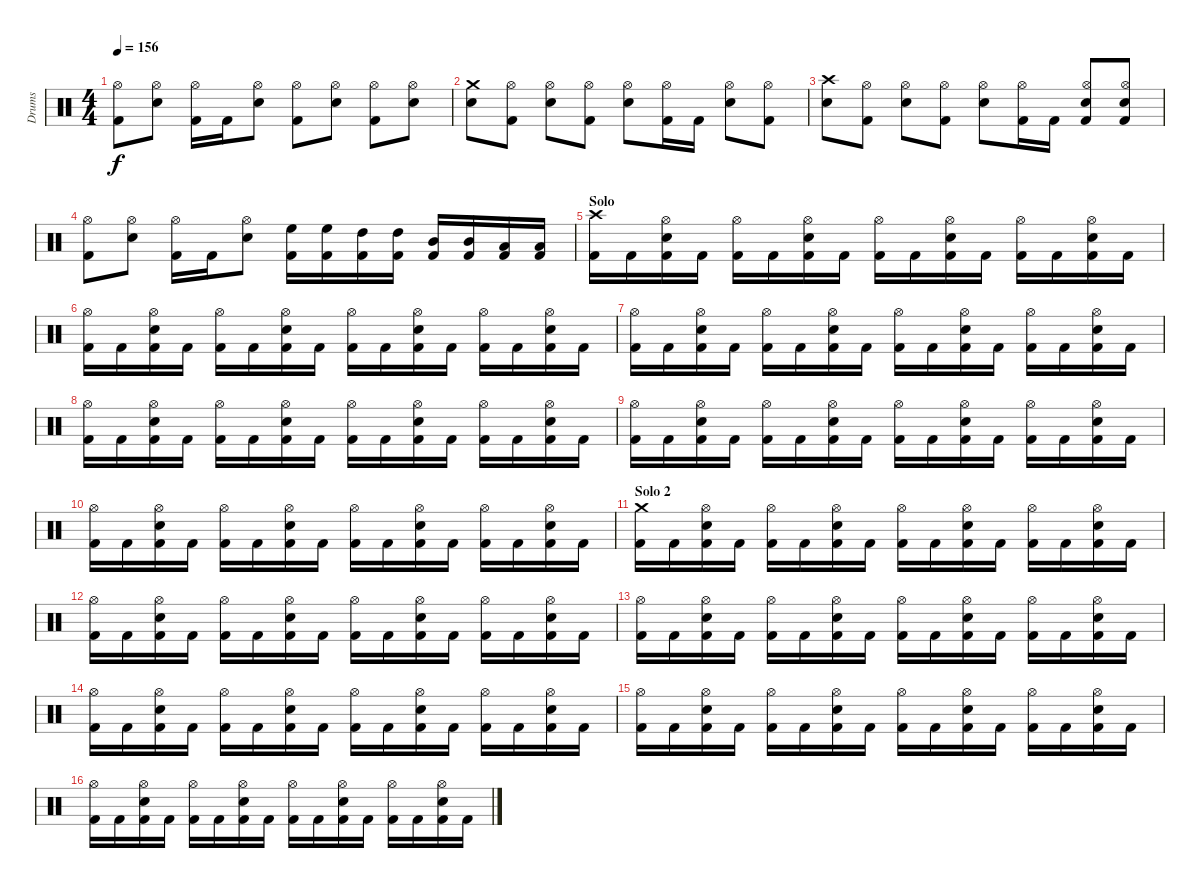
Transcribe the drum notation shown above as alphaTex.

\track ("Drums" "Drums") {instrument percussion}
\staff {score}
\articulation defaults
\ts (4 4)
\tempo 156
\clef neutral
\ks c
("Kick (hit) 2" "Hi-Hat (open)").8{dy f} ("Snare (hit) 2" "Hi-Hat (open)").8 ("Kick (hit) 2" "Hi-Hat (open)").16 "Kick (hit) 2".16 ("Snare (hit) 2" "Hi-Hat (open)").8 ("Kick (hit) 2" "Hi-Hat (open)").8 ("Snare (hit) 2" "Hi-Hat (open)").8 ("Kick (hit) 2" "Hi-Hat (open)").8 ("Snare (hit) 2" "Hi-Hat (open)").8 |
("Snare (hit) 2" "Crash medium (hit)").8 ("Kick (hit) 2" "Hi-Hat (open)").8 ("Snare (hit) 2" "Hi-Hat (open)").8 ("Kick (hit) 2" "Hi-Hat (open)").8 ("Snare (hit) 2" "Hi-Hat (open)").8 ("Kick (hit) 2" "Hi-Hat (open)").16 "Kick (hit) 2".16 ("Snare (hit) 2" "Hi-Hat (open)").8 ("Kick (hit) 2" "Hi-Hat (open)").8 |
("Snare (hit) 2" "Crash high (hit)").8 ("Kick (hit) 2" "Hi-Hat (open)").8 ("Snare (hit) 2" "Hi-Hat (open)").8 ("Kick (hit) 2" "Hi-Hat (open)").8 ("Snare (hit) 2" "Hi-Hat (open)").8 ("Kick (hit) 2" "Hi-Hat (open)").16 "Kick (hit) 2".16 ("Kick (hit) 2" "Snare (hit) 2" "Hi-Hat (open)").8 ("Kick (hit) 2" "Snare (hit) 2" "Hi-Hat (open)").8 |
("Kick (hit) 2" "Hi-Hat (open)").8 ("Snare (hit) 2" "Hi-Hat (open)").8 ("Kick (hit) 2" "Hi-Hat (open)").16 "Kick (hit) 2".16 ("Snare (hit) 2" "Hi-Hat (open)").8 ("Kick (hit) 2" "High Floor Tom (hit)").16 ("Kick (hit) 2" "High Floor Tom (hit)").16 ("Kick (hit) 2" "High Tom (hit)").16 ("Kick (hit) 2" "High Tom (hit)").16 ("Kick (hit) 2" "Mid Tom (hit)").16 ("Kick (hit) 2" "Mid Tom (hit)").16 ("Kick (hit) 2" "Low Tom (hit)").16 ("Kick (hit) 2" "Low Tom (hit)").16 |
\section ("" "Solo")
("Kick (hit) 2" "Crash high (hit)").16 "Kick (hit) 2".16 ("Kick (hit) 2" "Snare (hit) 2" "Hi-Hat (open)").16 "Kick (hit) 2".16 ("Kick (hit) 2" "Hi-Hat (open)").16 "Kick (hit) 2".16 ("Kick (hit) 2" "Snare (hit) 2" "Hi-Hat (open)").16 "Kick (hit) 2".16 ("Kick (hit) 2" "Hi-Hat (open)").16 "Kick (hit) 2".16 ("Kick (hit) 2" "Snare (hit) 2" "Hi-Hat (open)").16 "Kick (hit) 2".16 ("Kick (hit) 2" "Hi-Hat (open)").16 "Kick (hit) 2".16 ("Kick (hit) 2" "Snare (hit) 2" "Hi-Hat (open)").16 "Kick (hit) 2".16 |
("Kick (hit) 2" "Hi-Hat (open)").16 "Kick (hit) 2".16 ("Kick (hit) 2" "Snare (hit) 2" "Hi-Hat (open)").16 "Kick (hit) 2".16 ("Kick (hit) 2" "Hi-Hat (open)").16 "Kick (hit) 2".16 ("Kick (hit) 2" "Snare (hit) 2" "Hi-Hat (open)").16 "Kick (hit) 2".16 ("Kick (hit) 2" "Hi-Hat (open)").16 "Kick (hit) 2".16 ("Kick (hit) 2" "Snare (hit) 2" "Hi-Hat (open)").16 "Kick (hit) 2".16 ("Kick (hit) 2" "Hi-Hat (open)").16 "Kick (hit) 2".16 ("Kick (hit) 2" "Snare (hit) 2" "Hi-Hat (open)").16 "Kick (hit) 2".16 |
("Kick (hit) 2" "Hi-Hat (open)").16 "Kick (hit) 2".16 ("Kick (hit) 2" "Snare (hit) 2" "Hi-Hat (open)").16 "Kick (hit) 2".16 ("Kick (hit) 2" "Hi-Hat (open)").16 "Kick (hit) 2".16 ("Kick (hit) 2" "Snare (hit) 2" "Hi-Hat (open)").16 "Kick (hit) 2".16 ("Kick (hit) 2" "Hi-Hat (open)").16 "Kick (hit) 2".16 ("Kick (hit) 2" "Snare (hit) 2" "Hi-Hat (open)").16 "Kick (hit) 2".16 ("Kick (hit) 2" "Hi-Hat (open)").16 "Kick (hit) 2".16 ("Kick (hit) 2" "Snare (hit) 2" "Hi-Hat (open)").16 "Kick (hit) 2".16 |
("Kick (hit) 2" "Hi-Hat (open)").16 "Kick (hit) 2".16 ("Kick (hit) 2" "Snare (hit) 2" "Hi-Hat (open)").16 "Kick (hit) 2".16 ("Kick (hit) 2" "Hi-Hat (open)").16 "Kick (hit) 2".16 ("Kick (hit) 2" "Snare (hit) 2" "Hi-Hat (open)").16 "Kick (hit) 2".16 ("Kick (hit) 2" "Hi-Hat (open)").16 "Kick (hit) 2".16 ("Kick (hit) 2" "Snare (hit) 2" "Hi-Hat (open)").16 "Kick (hit) 2".16 ("Kick (hit) 2" "Hi-Hat (open)").16 "Kick (hit) 2".16 ("Kick (hit) 2" "Snare (hit) 2" "Hi-Hat (open)").16 "Kick (hit) 2".16 |
("Kick (hit) 2" "Hi-Hat (open)").16 "Kick (hit) 2".16 ("Kick (hit) 2" "Snare (hit) 2" "Hi-Hat (open)").16 "Kick (hit) 2".16 ("Kick (hit) 2" "Hi-Hat (open)").16 "Kick (hit) 2".16 ("Kick (hit) 2" "Snare (hit) 2" "Hi-Hat (open)").16 "Kick (hit) 2".16 ("Kick (hit) 2" "Hi-Hat (open)").16 "Kick (hit) 2".16 ("Kick (hit) 2" "Snare (hit) 2" "Hi-Hat (open)").16 "Kick (hit) 2".16 ("Kick (hit) 2" "Hi-Hat (open)").16 "Kick (hit) 2".16 ("Kick (hit) 2" "Snare (hit) 2" "Hi-Hat (open)").16 "Kick (hit) 2".16 |
("Kick (hit) 2" "Hi-Hat (open)").16 "Kick (hit) 2".16 ("Kick (hit) 2" "Snare (hit) 2" "Hi-Hat (open)").16 "Kick (hit) 2".16 ("Kick (hit) 2" "Hi-Hat (open)").16 "Kick (hit) 2".16 ("Kick (hit) 2" "Snare (hit) 2" "Hi-Hat (open)").16 "Kick (hit) 2".16 ("Kick (hit) 2" "Hi-Hat (open)").16 "Kick (hit) 2".16 ("Kick (hit) 2" "Snare (hit) 2" "Hi-Hat (open)").16 "Kick (hit) 2".16 ("Kick (hit) 2" "Hi-Hat (open)").16 "Kick (hit) 2".16 ("Kick (hit) 2" "Snare (hit) 2" "Hi-Hat (open)").16 "Kick (hit) 2".16 |
\section ("" "Solo 2")
("Kick (hit) 2" "Crash medium (hit)").16 "Kick (hit) 2".16 ("Kick (hit) 2" "Snare (hit) 2" "Hi-Hat (open)").16 "Kick (hit) 2".16 ("Kick (hit) 2" "Hi-Hat (open)").16 "Kick (hit) 2".16 ("Kick (hit) 2" "Snare (hit) 2" "Hi-Hat (open)").16 "Kick (hit) 2".16 ("Kick (hit) 2" "Hi-Hat (open)").16 "Kick (hit) 2".16 ("Kick (hit) 2" "Snare (hit) 2" "Hi-Hat (open)").16 "Kick (hit) 2".16 ("Kick (hit) 2" "Hi-Hat (open)").16 "Kick (hit) 2".16 ("Kick (hit) 2" "Snare (hit) 2" "Hi-Hat (open)").16 "Kick (hit) 2".16 |
("Kick (hit) 2" "Hi-Hat (open)").16 "Kick (hit) 2".16 ("Kick (hit) 2" "Snare (hit) 2" "Hi-Hat (open)").16 "Kick (hit) 2".16 ("Kick (hit) 2" "Hi-Hat (open)").16 "Kick (hit) 2".16 ("Kick (hit) 2" "Snare (hit) 2" "Hi-Hat (open)").16 "Kick (hit) 2".16 ("Kick (hit) 2" "Hi-Hat (open)").16 "Kick (hit) 2".16 ("Kick (hit) 2" "Snare (hit) 2" "Hi-Hat (open)").16 "Kick (hit) 2".16 ("Kick (hit) 2" "Hi-Hat (open)").16 "Kick (hit) 2".16 ("Kick (hit) 2" "Snare (hit) 2" "Hi-Hat (open)").16 "Kick (hit) 2".16 |
("Kick (hit) 2" "Hi-Hat (open)").16 "Kick (hit) 2".16 ("Kick (hit) 2" "Snare (hit) 2" "Hi-Hat (open)").16 "Kick (hit) 2".16 ("Kick (hit) 2" "Hi-Hat (open)").16 "Kick (hit) 2".16 ("Kick (hit) 2" "Snare (hit) 2" "Hi-Hat (open)").16 "Kick (hit) 2".16 ("Kick (hit) 2" "Hi-Hat (open)").16 "Kick (hit) 2".16 ("Kick (hit) 2" "Snare (hit) 2" "Hi-Hat (open)").16 "Kick (hit) 2".16 ("Kick (hit) 2" "Hi-Hat (open)").16 "Kick (hit) 2".16 ("Kick (hit) 2" "Snare (hit) 2" "Hi-Hat (open)").16 "Kick (hit) 2".16 |
("Kick (hit) 2" "Hi-Hat (open)").16 "Kick (hit) 2".16 ("Kick (hit) 2" "Snare (hit) 2" "Hi-Hat (open)").16 "Kick (hit) 2".16 ("Kick (hit) 2" "Hi-Hat (open)").16 "Kick (hit) 2".16 ("Kick (hit) 2" "Snare (hit) 2" "Hi-Hat (open)").16 "Kick (hit) 2".16 ("Kick (hit) 2" "Hi-Hat (open)").16 "Kick (hit) 2".16 ("Kick (hit) 2" "Snare (hit) 2" "Hi-Hat (open)").16 "Kick (hit) 2".16 ("Kick (hit) 2" "Hi-Hat (open)").16 "Kick (hit) 2".16 ("Kick (hit) 2" "Snare (hit) 2" "Hi-Hat (open)").16 "Kick (hit) 2".16 |
("Kick (hit) 2" "Hi-Hat (open)").16 "Kick (hit) 2".16 ("Kick (hit) 2" "Snare (hit) 2" "Hi-Hat (open)").16 "Kick (hit) 2".16 ("Kick (hit) 2" "Hi-Hat (open)").16 "Kick (hit) 2".16 ("Kick (hit) 2" "Snare (hit) 2" "Hi-Hat (open)").16 "Kick (hit) 2".16 ("Kick (hit) 2" "Hi-Hat (open)").16 "Kick (hit) 2".16 ("Kick (hit) 2" "Snare (hit) 2" "Hi-Hat (open)").16 "Kick (hit) 2".16 ("Kick (hit) 2" "Hi-Hat (open)").16 "Kick (hit) 2".16 ("Kick (hit) 2" "Snare (hit) 2" "Hi-Hat (open)").16 "Kick (hit) 2".16 |
("Kick (hit) 2" "Hi-Hat (open)").16 "Kick (hit) 2".16 ("Kick (hit) 2" "Snare (hit) 2" "Hi-Hat (open)").16 "Kick (hit) 2".16 ("Kick (hit) 2" "Hi-Hat (open)").16 "Kick (hit) 2".16 ("Kick (hit) 2" "Snare (hit) 2" "Hi-Hat (open)").16 "Kick (hit) 2".16 ("Kick (hit) 2" "Hi-Hat (open)").16 "Kick (hit) 2".16 ("Kick (hit) 2" "Snare (hit) 2" "Hi-Hat (open)").16 "Kick (hit) 2".16 ("Kick (hit) 2" "Hi-Hat (open)").16 "Kick (hit) 2".16 ("Kick (hit) 2" "Snare (hit) 2" "Hi-Hat (open)").16 "Kick (hit) 2".16
